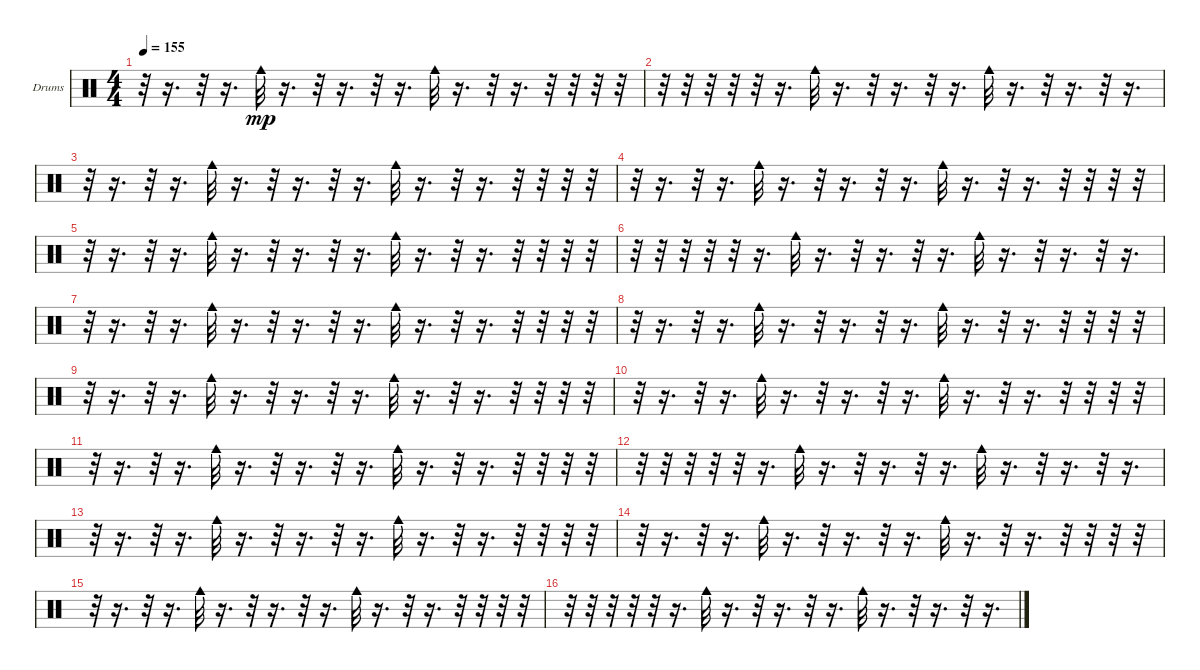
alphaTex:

\bracketExtendMode groupsimilarinstruments
\firstSystemTrackNameOrientation horizontal
\otherSystemsTrackNameOrientation horizontal
\track ("Е. Кулаков" "Drums") {instrument percussion}
\staff {score}
\articulation defaults
\ts (4 4)
\tempo 155
\clef neutral
\ks c
r.32{dy mp} r.16{d} r.32 r.16{d} "Cowbell medium (hit)".32 r.16{d} r.32 r.16{d} r.32 r.16{d} "Cowbell medium (hit)".32 r.16{d} r.32 r.16{d} r.32 r.32 r.32 r.32 |
r.32 r.32 r.32 r.32 r.32 r.16{d} "Cowbell medium (hit)".32 r.16{d} r.32 r.16{d} r.32 r.16{d} "Cowbell medium (hit)".32 r.16{d} r.32 r.16{d} r.32 r.16{d} |
r.32 r.16{d} r.32 r.16{d} "Cowbell medium (hit)".32 r.16{d} r.32 r.16{d} r.32 r.16{d} "Cowbell medium (hit)".32 r.16{d} r.32 r.16{d} r.32 r.32 r.32 r.32 |
r.32 r.16{d} r.32 r.16{d} "Cowbell medium (hit)".32 r.16{d} r.32 r.16{d} r.32 r.16{d} "Cowbell medium (hit)".32 r.16{d} r.32 r.16{d} r.32 r.32 r.32 r.32 |
r.32 r.16{d} r.32 r.16{d} "Cowbell medium (hit)".32 r.16{d} r.32 r.16{d} r.32 r.16{d} "Cowbell medium (hit)".32 r.16{d} r.32 r.16{d} r.32 r.32 r.32 r.32 |
r.32 r.32 r.32 r.32 r.32 r.16{d} "Cowbell medium (hit)".32 r.16{d} r.32 r.16{d} r.32 r.16{d} "Cowbell medium (hit)".32 r.16{d} r.32 r.16{d} r.32 r.16{d} |
r.32 r.16{d} r.32 r.16{d} "Cowbell medium (hit)".32 r.16{d} r.32 r.16{d} r.32 r.16{d} "Cowbell medium (hit)".32 r.16{d} r.32 r.16{d} r.32 r.32 r.32 r.32 |
r.32 r.16{d} r.32 r.16{d} "Cowbell medium (hit)".32 r.16{d} r.32 r.16{d} r.32 r.16{d} "Cowbell medium (hit)".32 r.16{d} r.32 r.16{d} r.32 r.32 r.32 r.32 |
r.32 r.16{d} r.32 r.16{d} "Cowbell medium (hit)".32 r.16{d} r.32 r.16{d} r.32 r.16{d} "Cowbell medium (hit)".32 r.16{d} r.32 r.16{d} r.32 r.32 r.32 r.32 |
r.32 r.16{d} r.32 r.16{d} "Cowbell medium (hit)".32 r.16{d} r.32 r.16{d} r.32 r.16{d} "Cowbell medium (hit)".32 r.16{d} r.32 r.16{d} r.32 r.32 r.32 r.32 |
r.32 r.16{d} r.32 r.16{d} "Cowbell medium (hit)".32 r.16{d} r.32 r.16{d} r.32 r.16{d} "Cowbell medium (hit)".32 r.16{d} r.32 r.16{d} r.32 r.32 r.32 r.32 |
r.32 r.32 r.32 r.32 r.32 r.16{d} "Cowbell medium (hit)".32 r.16{d} r.32 r.16{d} r.32 r.16{d} "Cowbell medium (hit)".32 r.16{d} r.32 r.16{d} r.32 r.16{d} |
r.32 r.16{d} r.32 r.16{d} "Cowbell medium (hit)".32 r.16{d} r.32 r.16{d} r.32 r.16{d} "Cowbell medium (hit)".32 r.16{d} r.32 r.16{d} r.32 r.32 r.32 r.32 |
r.32 r.16{d} r.32 r.16{d} "Cowbell medium (hit)".32 r.16{d} r.32 r.16{d} r.32 r.16{d} "Cowbell medium (hit)".32 r.16{d} r.32 r.16{d} r.32 r.32 r.32 r.32 |
r.32 r.16{d} r.32 r.16{d} "Cowbell medium (hit)".32 r.16{d} r.32 r.16{d} r.32 r.16{d} "Cowbell medium (hit)".32 r.16{d} r.32 r.16{d} r.32 r.32 r.32 r.32 |
r.32 r.32 r.32 r.32 r.32 r.16{d} "Cowbell medium (hit)".32 r.16{d} r.32 r.16{d} r.32 r.16{d} "Cowbell medium (hit)".32 r.16{d} r.32 r.16{d} r.32 r.16{d}
